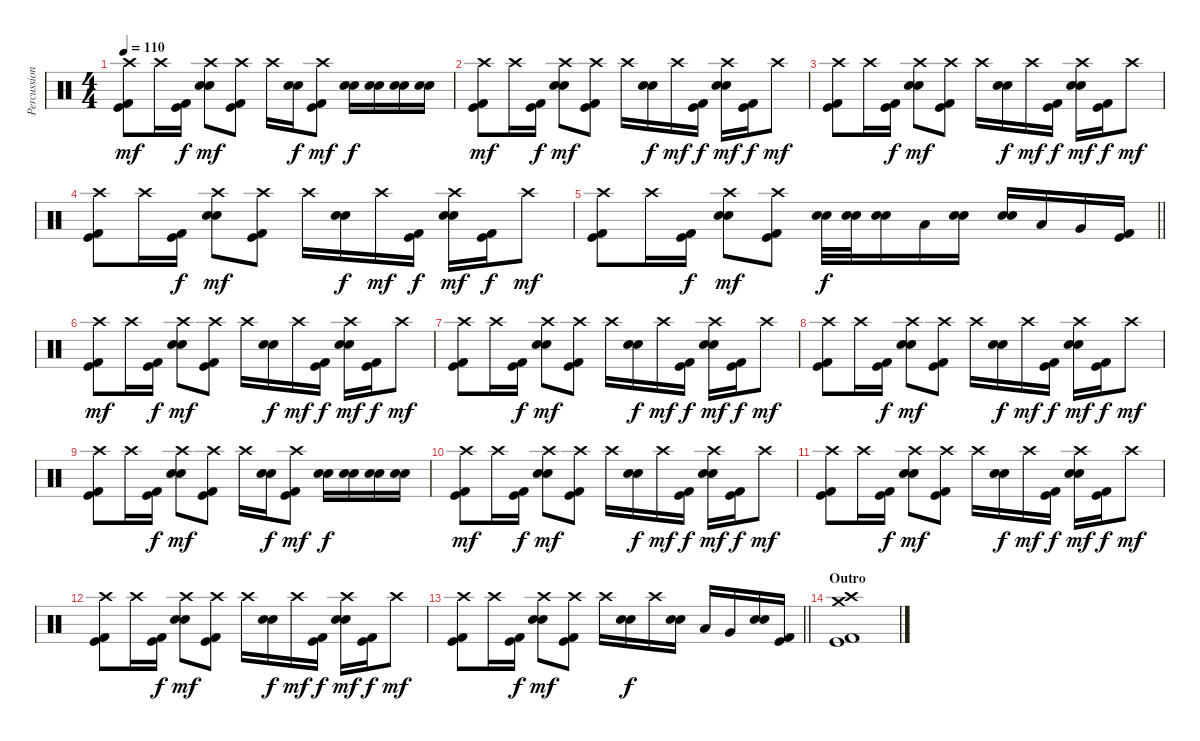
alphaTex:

\track ("Percussions" "Percussion") {instrument percussion}
\staff {score}
\articulation defaults
\ts (4 4)
\tempo 110
\clef neutral
\ks c
("Crash high (hit)" "Kick (hit)" "Kick (hit) 2").8{dy mf} "Crash high (hit)".16 ("Kick (hit)" "Kick (hit) 2").16{dy f} ("Crash high (hit)" "Snare (hit) 2" "Electric Snare (hit)").8{dy mf} ("Crash high (hit)" "Kick (hit)" "Kick (hit) 2").8 "Crash high (hit)".16 ("Snare (hit) 2" "Electric Snare (hit)").16{dy f} ("Crash high (hit)" "Kick (hit)" "Kick (hit) 2").8{dy mf} ("Snare (hit) 2" "Electric Snare (hit)").16{dy f} ("Snare (hit) 2" "Electric Snare (hit)").16 ("Snare (hit) 2" "Electric Snare (hit)").16 ("Snare (hit) 2" "Electric Snare (hit)").16 |
("Crash high (hit)" "Kick (hit)" "Kick (hit) 2").8{dy mf} "Crash high (hit)".16 ("Kick (hit)" "Kick (hit) 2").16{dy f} ("Crash high (hit)" "Snare (hit) 2" "Electric Snare (hit)").8{dy mf} ("Crash high (hit)" "Kick (hit)" "Kick (hit) 2").8 "Crash high (hit)".16 ("Snare (hit) 2" "Electric Snare (hit)").16{dy f} "Crash high (hit)".16{dy mf} ("Kick (hit)" "Kick (hit) 2").16{dy f} ("Crash high (hit)" "Snare (hit) 2" "Electric Snare (hit)").16{dy mf} ("Kick (hit)" "Kick (hit) 2").16{dy f} "Crash high (hit)".8{dy mf} |
("Crash high (hit)" "Kick (hit)" "Kick (hit) 2").8 "Crash high (hit)".16 ("Kick (hit)" "Kick (hit) 2").16{dy f} ("Crash high (hit)" "Snare (hit) 2" "Electric Snare (hit)").8{dy mf} ("Crash high (hit)" "Kick (hit)" "Kick (hit) 2").8 "Crash high (hit)".16 ("Snare (hit) 2" "Electric Snare (hit)").16{dy f} "Crash high (hit)".16{dy mf} ("Kick (hit)" "Kick (hit) 2").16{dy f} ("Crash high (hit)" "Snare (hit) 2" "Electric Snare (hit)").16{dy mf} ("Kick (hit)" "Kick (hit) 2").16{dy f} "Crash high (hit)".8{dy mf} |
("Crash high (hit)" "Kick (hit)" "Kick (hit) 2").8 "Crash high (hit)".16 ("Kick (hit)" "Kick (hit) 2").16{dy f} ("Crash high (hit)" "Snare (hit) 2" "Electric Snare (hit)").8{dy mf} ("Crash high (hit)" "Kick (hit)" "Kick (hit) 2").8 "Crash high (hit)".16 ("Snare (hit) 2" "Electric Snare (hit)").16{dy f} "Crash high (hit)".16{dy mf} ("Kick (hit)" "Kick (hit) 2").16{dy f} ("Crash high (hit)" "Snare (hit) 2" "Electric Snare (hit)").16{dy mf} ("Kick (hit)" "Kick (hit) 2").16{dy f} "Crash high (hit)".8{dy mf} |
\barLineRight lightlight
("Crash high (hit)" "Kick (hit)" "Kick (hit) 2").8 "Crash high (hit)".16 ("Kick (hit)" "Kick (hit) 2").16{dy f} ("Crash high (hit)" "Snare (hit) 2" "Electric Snare (hit)").8{dy mf} ("Crash high (hit)" "Kick (hit)" "Kick (hit) 2").8 ("Snare (hit) 2" "Electric Snare (hit)").32{dy f} ("Snare (hit) 2" "Electric Snare (hit)").32 ("Snare (hit) 2" "Electric Snare (hit)").16 "Low Tom (hit)".16 ("Snare (hit) 2" "Electric Snare (hit)").16 ("Snare (hit) 2" "Electric Snare (hit)").16 "Low Tom (hit)".16 "Very Low Tom (hit)".16 ("Kick (hit)" "Kick (hit) 2").16 |
("Crash high (hit)" "Kick (hit)" "Kick (hit) 2").8{dy mf} "Crash high (hit)".16 ("Kick (hit)" "Kick (hit) 2").16{dy f} ("Crash high (hit)" "Snare (hit) 2" "Electric Snare (hit)").8{dy mf} ("Crash high (hit)" "Kick (hit)" "Kick (hit) 2").8 "Crash high (hit)".16 ("Snare (hit) 2" "Electric Snare (hit)").16{dy f} "Crash high (hit)".16{dy mf} ("Kick (hit)" "Kick (hit) 2").16{dy f} ("Crash high (hit)" "Snare (hit) 2" "Electric Snare (hit)").16{dy mf} ("Kick (hit)" "Kick (hit) 2").16{dy f} "Crash high (hit)".8{dy mf} |
("Crash high (hit)" "Kick (hit)" "Kick (hit) 2").8 "Crash high (hit)".16 ("Kick (hit)" "Kick (hit) 2").16{dy f} ("Crash high (hit)" "Snare (hit) 2" "Electric Snare (hit)").8{dy mf} ("Crash high (hit)" "Kick (hit)" "Kick (hit) 2").8 "Crash high (hit)".16 ("Snare (hit) 2" "Electric Snare (hit)").16{dy f} "Crash high (hit)".16{dy mf} ("Kick (hit)" "Kick (hit) 2").16{dy f} ("Crash high (hit)" "Snare (hit) 2" "Electric Snare (hit)").16{dy mf} ("Kick (hit)" "Kick (hit) 2").16{dy f} "Crash high (hit)".8{dy mf} |
("Crash high (hit)" "Kick (hit)" "Kick (hit) 2").8 "Crash high (hit)".16 ("Kick (hit)" "Kick (hit) 2").16{dy f} ("Crash high (hit)" "Snare (hit) 2" "Electric Snare (hit)").8{dy mf} ("Crash high (hit)" "Kick (hit)" "Kick (hit) 2").8 "Crash high (hit)".16 ("Snare (hit) 2" "Electric Snare (hit)").16{dy f} "Crash high (hit)".16{dy mf} ("Kick (hit)" "Kick (hit) 2").16{dy f} ("Crash high (hit)" "Snare (hit) 2" "Electric Snare (hit)").16{dy mf} ("Kick (hit)" "Kick (hit) 2").16{dy f} "Crash high (hit)".8{dy mf} |
("Crash high (hit)" "Kick (hit)" "Kick (hit) 2").8 "Crash high (hit)".16 ("Kick (hit)" "Kick (hit) 2").16{dy f} ("Crash high (hit)" "Snare (hit) 2" "Electric Snare (hit)").8{dy mf} ("Crash high (hit)" "Kick (hit)" "Kick (hit) 2").8 "Crash high (hit)".16 ("Snare (hit) 2" "Electric Snare (hit)").16{dy f} ("Crash high (hit)" "Kick (hit)" "Kick (hit) 2").8{dy mf} ("Snare (hit) 2" "Electric Snare (hit)").16{dy f} ("Snare (hit) 2" "Electric Snare (hit)").16 ("Snare (hit) 2" "Electric Snare (hit)").16 ("Snare (hit) 2" "Electric Snare (hit)").16 |
("Crash high (hit)" "Kick (hit)" "Kick (hit) 2").8{dy mf} "Crash high (hit)".16 ("Kick (hit)" "Kick (hit) 2").16{dy f} ("Crash high (hit)" "Snare (hit) 2" "Electric Snare (hit)").8{dy mf} ("Crash high (hit)" "Kick (hit)" "Kick (hit) 2").8 "Crash high (hit)".16 ("Snare (hit) 2" "Electric Snare (hit)").16{dy f} "Crash high (hit)".16{dy mf} ("Kick (hit)" "Kick (hit) 2").16{dy f} ("Crash high (hit)" "Snare (hit) 2" "Electric Snare (hit)").16{dy mf} ("Kick (hit)" "Kick (hit) 2").16{dy f} "Crash high (hit)".8{dy mf} |
("Crash high (hit)" "Kick (hit)" "Kick (hit) 2").8 "Crash high (hit)".16 ("Kick (hit)" "Kick (hit) 2").16{dy f} ("Crash high (hit)" "Snare (hit) 2" "Electric Snare (hit)").8{dy mf} ("Crash high (hit)" "Kick (hit)" "Kick (hit) 2").8 "Crash high (hit)".16 ("Snare (hit) 2" "Electric Snare (hit)").16{dy f} "Crash high (hit)".16{dy mf} ("Kick (hit)" "Kick (hit) 2").16{dy f} ("Crash high (hit)" "Snare (hit) 2" "Electric Snare (hit)").16{dy mf} ("Kick (hit)" "Kick (hit) 2").16{dy f} "Crash high (hit)".8{dy mf} |
("Crash high (hit)" "Kick (hit)" "Kick (hit) 2").8 "Crash high (hit)".16 ("Kick (hit)" "Kick (hit) 2").16{dy f} ("Crash high (hit)" "Snare (hit) 2" "Electric Snare (hit)").8{dy mf} ("Crash high (hit)" "Kick (hit)" "Kick (hit) 2").8 "Crash high (hit)".16 ("Snare (hit) 2" "Electric Snare (hit)").16{dy f} "Crash high (hit)".16{dy mf} ("Kick (hit)" "Kick (hit) 2").16{dy f} ("Crash high (hit)" "Snare (hit) 2" "Electric Snare (hit)").16{dy mf} ("Kick (hit)" "Kick (hit) 2").16{dy f} "Crash high (hit)".8{dy mf} |
\barLineRight lightlight
("Crash high (hit)" "Kick (hit)" "Kick (hit) 2").8 "Crash high (hit)".16 ("Kick (hit)" "Kick (hit) 2").16{dy f} ("Crash high (hit)" "Snare (hit) 2" "Electric Snare (hit)").8{dy mf} ("Crash high (hit)" "Kick (hit)" "Kick (hit) 2").8 "Crash high (hit)".16 ("Snare (hit) 2" "Electric Snare (hit)").16{dy f} "Crash high (hit)".16 ("Snare (hit) 2" "Electric Snare (hit)").16 "Low Tom (hit)".16 "Very Low Tom (hit)".16 ("Snare (hit) 2" "Electric Snare (hit)").16 ("Kick (hit)" "Kick (hit) 2").16 |
\section ("" "Outro")
("Crash medium (hit)" "Crash high (hit)" "Kick (hit)" "Kick (hit) 2").1
